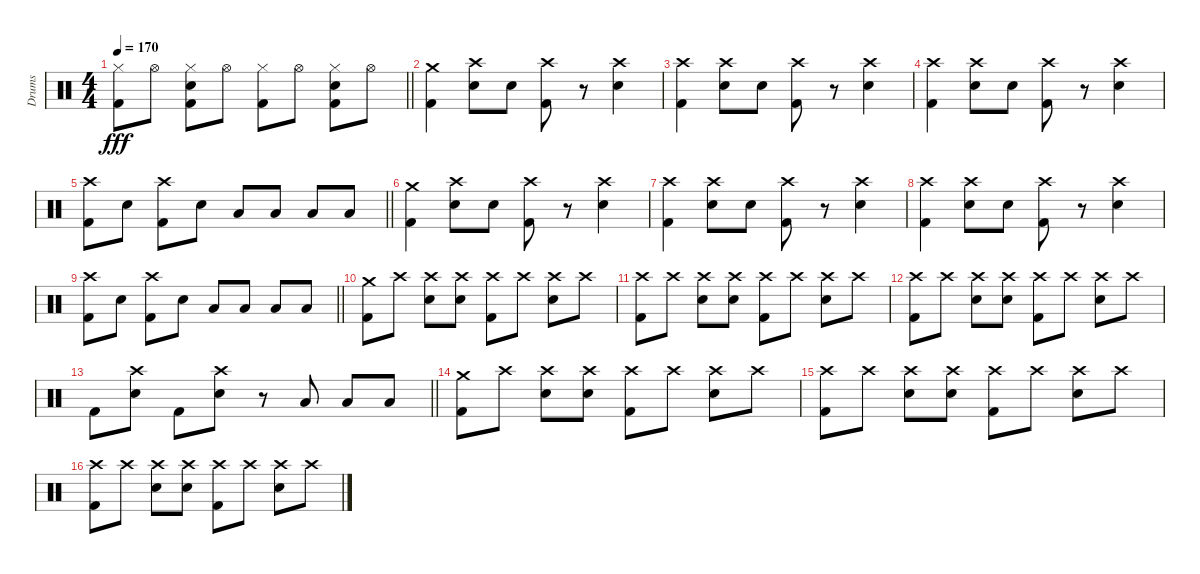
\track ("Drums" "Drums") {instrument percussion}
\staff {score}
\articulation defaults
\ts (4 4)
\tempo 170
\clef neutral
\barLineRight lightlight
\ks c
("Hi-Hat (closed)" "Kick (hit) 2").8{dy fff} "Hi-Hat (open)".8 ("Hi-Hat (closed)" "Electric Snare (hit)" "Kick (hit) 2").8 "Hi-Hat (open)".8 ("Hi-Hat (closed)" "Kick (hit) 2").8 "Hi-Hat (open)".8 ("Hi-Hat (closed)" "Electric Snare (hit)" "Kick (hit) 2").8 "Hi-Hat (open)".8 |
("Crash medium (hit)" "Kick (hit) 2").4 ("Crash high (hit)" "Electric Snare (hit)").8 "Electric Snare (hit)".8 ("Crash high (hit)" "Kick (hit) 2").8 r.8 ("Crash high (hit)" "Electric Snare (hit)").4 |
("Crash high (hit)" "Kick (hit) 2").4 ("Crash high (hit)" "Electric Snare (hit)").8 "Electric Snare (hit)".8 ("Crash high (hit)" "Kick (hit) 2").8 r.8 ("Crash high (hit)" "Electric Snare (hit)").4 |
("Crash high (hit)" "Kick (hit) 2").4 ("Crash high (hit)" "Electric Snare (hit)").8 "Electric Snare (hit)".8 ("Crash high (hit)" "Kick (hit) 2").8 r.8 ("Crash high (hit)" "Electric Snare (hit)").4 |
\barLineRight lightlight
("Crash high (hit)" "Kick (hit) 2").8 "Electric Snare (hit)".8 ("Crash high (hit)" "Kick (hit) 2").8 "Electric Snare (hit)".8 "Low Tom (hit)".8 "Low Tom (hit)".8 "Low Floor Tom (hit)".8 "Low Floor Tom (hit)".8 |
("Crash medium (hit)" "Kick (hit) 2").4 ("Crash high (hit)" "Electric Snare (hit)").8 "Electric Snare (hit)".8 ("Crash high (hit)" "Kick (hit) 2").8 r.8 ("Crash high (hit)" "Electric Snare (hit)").4 |
("Crash high (hit)" "Kick (hit) 2").4 ("Crash high (hit)" "Electric Snare (hit)").8 "Electric Snare (hit)".8 ("Crash high (hit)" "Kick (hit) 2").8 r.8 ("Crash high (hit)" "Electric Snare (hit)").4 |
("Crash high (hit)" "Kick (hit) 2").4 ("Crash high (hit)" "Electric Snare (hit)").8 "Electric Snare (hit)".8 ("Crash high (hit)" "Kick (hit) 2").8 r.8 ("Crash high (hit)" "Electric Snare (hit)").4 |
\barLineRight lightlight
("Crash high (hit)" "Kick (hit) 2").8 "Electric Snare (hit)".8 ("Crash high (hit)" "Kick (hit) 2").8 "Electric Snare (hit)".8 "Low Tom (hit)".8 "Low Tom (hit)".8 "Low Floor Tom (hit)".8 "Low Floor Tom (hit)".8 |
("Crash medium (hit)" "Kick (hit) 2").8 "Crash high (hit)".8 ("Crash high (hit)" "Electric Snare (hit)").8 ("Crash high (hit)" "Electric Snare (hit)").8 ("Crash high (hit)" "Kick (hit) 2").8 "Crash high (hit)".8 ("Crash high (hit)" "Electric Snare (hit)").8 "Crash high (hit)".8 |
("Crash high (hit)" "Kick (hit) 2").8 "Crash high (hit)".8 ("Crash high (hit)" "Electric Snare (hit)").8 ("Crash high (hit)" "Electric Snare (hit)").8 ("Crash high (hit)" "Kick (hit) 2").8 "Crash high (hit)".8 ("Crash high (hit)" "Electric Snare (hit)").8 "Crash high (hit)".8 |
("Crash high (hit)" "Kick (hit) 2").8 "Crash high (hit)".8 ("Crash high (hit)" "Electric Snare (hit)").8 ("Crash high (hit)" "Electric Snare (hit)").8 ("Crash high (hit)" "Kick (hit) 2").8 "Crash high (hit)".8 ("Crash high (hit)" "Electric Snare (hit)").8 "Crash high (hit)".8 |
\barLineRight lightlight "Kick (hit) 2".8
("Crash high (hit)" "Electric Snare (hit)").8 "Kick (hit) 2".8 ("Crash high (hit)" "Electric Snare (hit)").8 r.8 "Low Tom (hit)".8 "Low Floor Tom (hit)".8 "Low Floor Tom (hit)".8 |
("Crash medium (hit)" "Kick (hit) 2").8 "Crash high (hit)".8 ("Crash high (hit)" "Electric Snare (hit)").8 ("Crash high (hit)" "Electric Snare (hit)").8 ("Crash high (hit)" "Kick (hit) 2").8 "Crash high (hit)".8 ("Crash high (hit)" "Electric Snare (hit)").8 "Crash high (hit)".8 |
("Crash high (hit)" "Kick (hit) 2").8 "Crash high (hit)".8 ("Crash high (hit)" "Electric Snare (hit)").8 ("Crash high (hit)" "Electric Snare (hit)").8 ("Crash high (hit)" "Kick (hit) 2").8 "Crash high (hit)".8 ("Crash high (hit)" "Electric Snare (hit)").8 "Crash high (hit)".8 |
("Crash high (hit)" "Kick (hit) 2").8 "Crash high (hit)".8 ("Crash high (hit)" "Electric Snare (hit)").8 ("Crash high (hit)" "Electric Snare (hit)").8 ("Crash high (hit)" "Kick (hit) 2").8 "Crash high (hit)".8 ("Crash high (hit)" "Electric Snare (hit)").8 "Crash high (hit)".8
